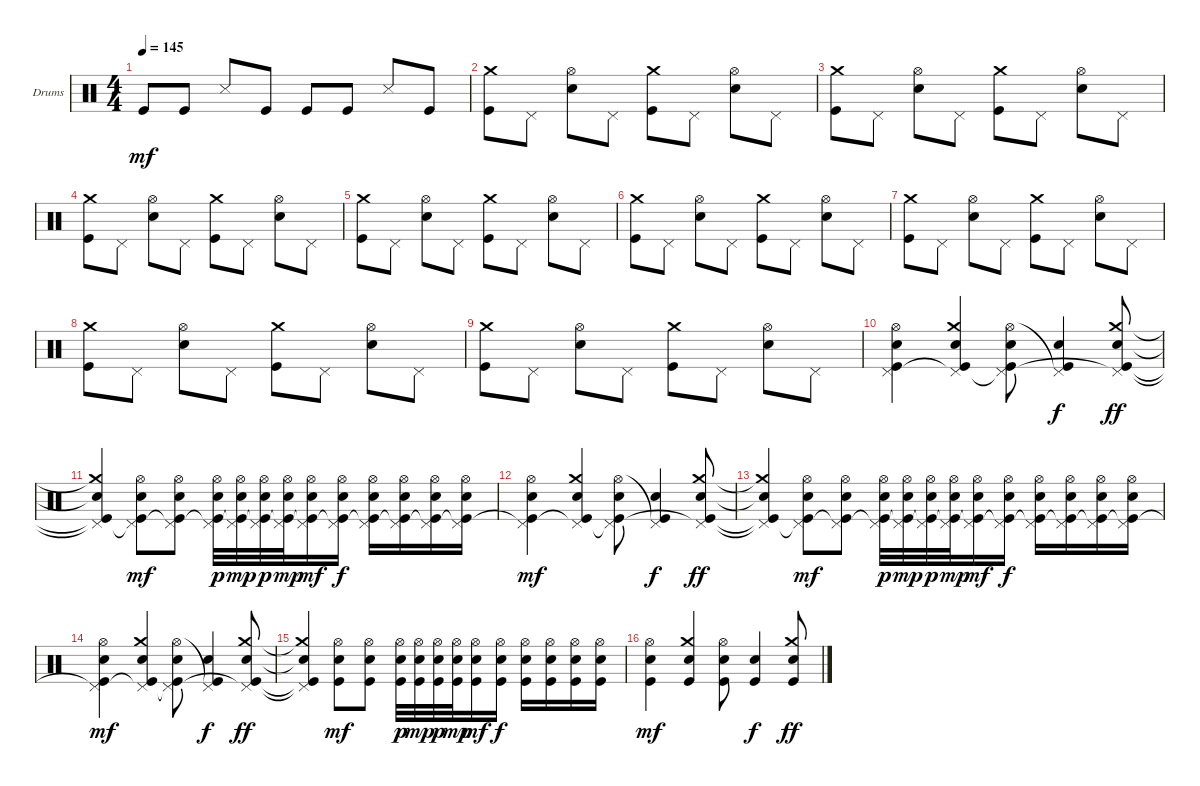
\defaultSystemsLayout 4
\bracketExtendMode groupsimilarinstruments
\firstSystemTrackNameOrientation horizontal
\otherSystemsTrackNameOrientation horizontal
\track ("Е. Кулаков" "Drums") {instrument percussion}
\staff {score}
\articulation defaults
\ts (4 4)
\tempo 145
\clef neutral
\ks c "Kick (hit)".8{dy mf} "Kick (hit)".8 "Snare (side stick) 3".8 "Kick (hit)".8 "Kick (hit)".8 "Kick (hit)".8 "Snare (side stick) 3".8 "Kick (hit)".8
|
("Kick (hit)" "Crash medium (hit)").8 "Pedal Hi-Hat (hit)".8 ("Snare (hit) 2" "Hi-Hat (open)").8 "Pedal Hi-Hat (hit)".8 ("Kick (hit)" "Crash medium (hit)").8 "Pedal Hi-Hat (hit)".8 ("Snare (hit) 2" "Hi-Hat (open)").8 "Pedal Hi-Hat (hit)".8 |
("Kick (hit)" "Crash medium (hit)").8 "Pedal Hi-Hat (hit)".8 ("Snare (hit) 2" "Hi-Hat (open)").8 "Pedal Hi-Hat (hit)".8 ("Kick (hit)" "Crash medium (hit)").8 "Pedal Hi-Hat (hit)".8 ("Snare (hit) 2" "Hi-Hat (open)").8 "Pedal Hi-Hat (hit)".8 |
("Kick (hit)" "Crash medium (hit)").8 "Pedal Hi-Hat (hit)".8 ("Snare (hit) 2" "Hi-Hat (open)").8 "Pedal Hi-Hat (hit)".8 ("Kick (hit)" "Crash medium (hit)").8 "Pedal Hi-Hat (hit)".8 ("Snare (hit) 2" "Hi-Hat (open)").8 "Pedal Hi-Hat (hit)".8 |
("Kick (hit)" "Crash medium (hit)").8 "Pedal Hi-Hat (hit)".8 ("Snare (hit) 2" "Hi-Hat (open)").8 "Pedal Hi-Hat (hit)".8 ("Kick (hit)" "Crash medium (hit)").8 "Pedal Hi-Hat (hit)".8 ("Snare (hit) 2" "Hi-Hat (open)").8 "Pedal Hi-Hat (hit)".8 |
("Kick (hit)" "Crash medium (hit)").8 "Pedal Hi-Hat (hit)".8 ("Snare (hit) 2" "Hi-Hat (open)").8 "Pedal Hi-Hat (hit)".8 ("Kick (hit)" "Crash medium (hit)").8 "Pedal Hi-Hat (hit)".8 ("Snare (hit) 2" "Hi-Hat (open)").8 "Pedal Hi-Hat (hit)".8 |
("Kick (hit)" "Crash medium (hit)").8 "Pedal Hi-Hat (hit)".8 ("Snare (hit) 2" "Hi-Hat (open)").8 "Pedal Hi-Hat (hit)".8 ("Kick (hit)" "Crash medium (hit)").8 "Pedal Hi-Hat (hit)".8 ("Snare (hit) 2" "Hi-Hat (open)").8 "Pedal Hi-Hat (hit)".8 |
("Kick (hit)" "Crash medium (hit)").8 "Pedal Hi-Hat (hit)".8 ("Snare (hit) 2" "Hi-Hat (open)").8 "Pedal Hi-Hat (hit)".8 ("Kick (hit)" "Crash medium (hit)").8 "Pedal Hi-Hat (hit)".8 ("Snare (hit) 2" "Hi-Hat (open)").8 "Pedal Hi-Hat (hit)".8 |
("Kick (hit)" "Crash medium (hit)").8 "Pedal Hi-Hat (hit)".8 ("Snare (hit) 2" "Hi-Hat (open)").8 "Pedal Hi-Hat (hit)".8 ("Kick (hit)" "Crash medium (hit)").8 "Pedal Hi-Hat (hit)".8 ("Snare (hit) 2" "Hi-Hat (open)").8 "Pedal Hi-Hat (hit)".8 |
("Kick (hit)" "Snare (hit) 2" "Hi-Hat (open)" "Pedal Hi-Hat (hit)").4 ("Kick (hit)" "Snare (hit) 2" "Crash medium (hit)" "Pedal Hi-Hat (hit)"{t}).4 ("Kick (hit)" "Snare (hit) 2" "Hi-Hat (open)" "Pedal Hi-Hat (hit)"{t}).8 ("Kick (hit)" "Snare (hit) 2" "Pedal Hi-Hat (hit)"{t}).4{dy f} ("Kick (hit)" "Snare (hit) 2" "Crash medium (hit)" "Pedal Hi-Hat (hit)"{t}).8{dy ff} |
("Kick (hit)"{t} "Snare (hit) 2"{t} "Crash medium (hit)"{t} "Pedal Hi-Hat (hit)"{t}).4 ("Kick (hit)" "Snare (hit) 2" "Hi-Hat (open)" "Pedal Hi-Hat (hit)"{t}).8{dy mf} ("Kick (hit)" "Snare (hit) 2" "Hi-Hat (open)" "Pedal Hi-Hat (hit)"{t}).8 ("Kick (hit)" "Snare (hit) 2" "Hi-Hat (open)" "Pedal Hi-Hat (hit)"{t}).32{dy p} ("Kick (hit)" "Snare (hit) 2" "Hi-Hat (open)" "Pedal Hi-Hat (hit)"{t}).32{dy mp} ("Kick (hit)" "Snare (hit) 2" "Hi-Hat (open)" "Pedal Hi-Hat (hit)"{t}).32{dy p} ("Kick (hit)" "Snare (hit) 2" "Hi-Hat (open)" "Pedal Hi-Hat (hit)"{t}).32{dy mp} ("Kick (hit)" "Snare (hit) 2" "Hi-Hat (open)" "Pedal Hi-Hat (hit)"{t}).16{dy mf} ("Kick (hit)" "Snare (hit) 2" "Hi-Hat (open)" "Pedal Hi-Hat (hit)"{t}).16{dy f} ("Kick (hit)" "Snare (hit) 2" "Hi-Hat (open)" "Pedal Hi-Hat (hit)"{t}).16 ("Kick (hit)" "Snare (hit) 2" "Hi-Hat (open)" "Pedal Hi-Hat (hit)"{t}).16 ("Kick (hit)" "Snare (hit) 2" "Hi-Hat (open)" "Pedal Hi-Hat (hit)"{t}).16 ("Kick (hit)" "Snare (hit) 2" "Hi-Hat (open)" "Pedal Hi-Hat (hit)"{t}).16 |
("Kick (hit)" "Snare (hit) 2" "Hi-Hat (open)" "Pedal Hi-Hat (hit)"{t}).4{dy mf} ("Kick (hit)" "Snare (hit) 2" "Crash medium (hit)" "Pedal Hi-Hat (hit)"{t}).4 ("Kick (hit)" "Snare (hit) 2" "Hi-Hat (open)" "Pedal Hi-Hat (hit)"{t}).8 ("Kick (hit)" "Snare (hit) 2" "Pedal Hi-Hat (hit)"{t}).4{dy f} ("Kick (hit)" "Snare (hit) 2" "Crash medium (hit)" "Pedal Hi-Hat (hit)"{t}).8{dy ff} |
("Kick (hit)"{t} "Snare (hit) 2"{t} "Crash medium (hit)"{t} "Pedal Hi-Hat (hit)"{t}).4 ("Kick (hit)" "Snare (hit) 2" "Hi-Hat (open)" "Pedal Hi-Hat (hit)"{t}).8{dy mf} ("Kick (hit)" "Snare (hit) 2" "Hi-Hat (open)" "Pedal Hi-Hat (hit)"{t}).8 ("Kick (hit)" "Snare (hit) 2" "Hi-Hat (open)" "Pedal Hi-Hat (hit)"{t}).32{dy p} ("Kick (hit)" "Snare (hit) 2" "Hi-Hat (open)" "Pedal Hi-Hat (hit)"{t}).32{dy mp} ("Kick (hit)" "Snare (hit) 2" "Hi-Hat (open)" "Pedal Hi-Hat (hit)"{t}).32{dy p} ("Kick (hit)" "Snare (hit) 2" "Hi-Hat (open)" "Pedal Hi-Hat (hit)"{t}).32{dy mp} ("Kick (hit)" "Snare (hit) 2" "Hi-Hat (open)" "Pedal Hi-Hat (hit)"{t}).16{dy mf} ("Kick (hit)" "Snare (hit) 2" "Hi-Hat (open)" "Pedal Hi-Hat (hit)"{t}).16{dy f} ("Kick (hit)" "Snare (hit) 2" "Hi-Hat (open)" "Pedal Hi-Hat (hit)"{t}).16 ("Kick (hit)" "Snare (hit) 2" "Hi-Hat (open)" "Pedal Hi-Hat (hit)"{t}).16 ("Kick (hit)" "Snare (hit) 2" "Hi-Hat (open)" "Pedal Hi-Hat (hit)"{t}).16 ("Kick (hit)" "Snare (hit) 2" "Hi-Hat (open)" "Pedal Hi-Hat (hit)"{t}).16 |
("Kick (hit)" "Snare (hit) 2" "Hi-Hat (open)" "Pedal Hi-Hat (hit)"{t}).4{dy mf} ("Kick (hit)" "Snare (hit) 2" "Crash medium (hit)" "Pedal Hi-Hat (hit)"{t}).4 ("Kick (hit)" "Snare (hit) 2" "Hi-Hat (open)" "Pedal Hi-Hat (hit)"{t}).8 ("Kick (hit)" "Snare (hit) 2" "Pedal Hi-Hat (hit)"{t}).4{dy f} ("Kick (hit)" "Snare (hit) 2" "Crash medium (hit)" "Pedal Hi-Hat (hit)"{t}).8{dy ff} |
("Kick (hit)"{t} "Snare (hit) 2"{t} "Crash medium (hit)"{t} "Pedal Hi-Hat (hit)"{t}).4 ("Kick (hit)" "Snare (hit) 2" "Hi-Hat (open)").8{dy mf} ("Kick (hit)" "Snare (hit) 2" "Hi-Hat (open)").8 ("Kick (hit)" "Snare (hit) 2" "Hi-Hat (open)").32{dy p} ("Kick (hit)" "Snare (hit) 2" "Hi-Hat (open)").32{dy mp} ("Kick (hit)" "Snare (hit) 2" "Hi-Hat (open)").32{dy p} ("Kick (hit)" "Snare (hit) 2" "Hi-Hat (open)").32{dy mp} ("Kick (hit)" "Snare (hit) 2" "Hi-Hat (open)").16{dy mf} ("Kick (hit)" "Snare (hit) 2" "Hi-Hat (open)").16{dy f} ("Kick (hit)" "Snare (hit) 2" "Hi-Hat (open)").16 ("Kick (hit)" "Snare (hit) 2" "Hi-Hat (open)").16 ("Kick (hit)" "Snare (hit) 2" "Hi-Hat (open)").16 ("Kick (hit)" "Snare (hit) 2" "Hi-Hat (open)").16 |
("Kick (hit)" "Snare (hit) 2" "Hi-Hat (open)").4{dy mf} ("Kick (hit)" "Snare (hit) 2" "Crash medium (hit)").4 ("Kick (hit)" "Snare (hit) 2" "Hi-Hat (open)").8 ("Kick (hit)" "Snare (hit) 2").4{dy f} ("Kick (hit)" "Snare (hit) 2" "Crash medium (hit)").8{dy ff}
